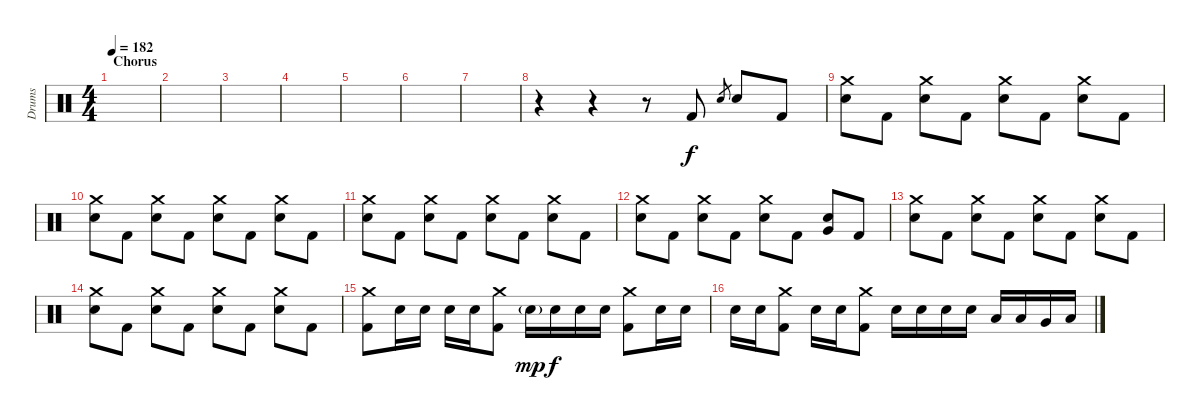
\track ("Drums" "Drums") {instrument percussion}
\staff {score}
\articulation defaults
\ts (4 4)
\section ("" "Chorus")
\tempo 182
\clef neutral
\ks c
|
|
|
|
|
|
|
r.4 r.4 r.8 "Kick (hit) 2".8 "Electric Snare (hit)".8{gr} "Electric Snare (hit)".8 "Kick (hit) 2".8 |
("Crash medium (hit)" "Electric Snare (hit)").8 "Kick (hit) 2".8 ("Crash medium (hit)" "Electric Snare (hit)").8 "Kick (hit) 2".8 ("Crash medium (hit)" "Electric Snare (hit)").8 "Kick (hit) 2".8 ("Crash medium (hit)" "Electric Snare (hit)").8 "Kick (hit) 2".8 |
("Crash medium (hit)" "Electric Snare (hit)").8 "Kick (hit) 2".8 ("Crash medium (hit)" "Electric Snare (hit)").8 "Kick (hit) 2".8 ("Crash medium (hit)" "Electric Snare (hit)").8 "Kick (hit) 2".8 ("Crash medium (hit)" "Electric Snare (hit)").8 "Kick (hit) 2".8 |
("Crash medium (hit)" "Electric Snare (hit)").8 "Kick (hit) 2".8 ("Crash medium (hit)" "Electric Snare (hit)").8 "Kick (hit) 2".8 ("Crash medium (hit)" "Electric Snare (hit)").8 "Kick (hit) 2".8 ("Crash medium (hit)" "Electric Snare (hit)").8 "Kick (hit) 2".8 |
("Crash medium (hit)" "Electric Snare (hit)").8 "Kick (hit) 2".8 ("Crash medium (hit)" "Electric Snare (hit)").8 "Kick (hit) 2".8 ("Crash medium (hit)" "Electric Snare (hit)").8 "Kick (hit) 2".8 ("Very Low Tom (hit)" "Electric Snare (hit)").8 "Kick (hit) 2".8 |
("Crash medium (hit)" "Electric Snare (hit)").8 "Kick (hit) 2".8 ("Crash medium (hit)" "Electric Snare (hit)").8 "Kick (hit) 2".8 ("Crash medium (hit)" "Electric Snare (hit)").8 "Kick (hit) 2".8 ("Crash medium (hit)" "Electric Snare (hit)").8 "Kick (hit) 2".8 |
("Crash medium (hit)" "Electric Snare (hit)").8 "Kick (hit) 2".8 ("Crash medium (hit)" "Electric Snare (hit)").8 "Kick (hit) 2".8 ("Crash medium (hit)" "Electric Snare (hit)").8 "Kick (hit) 2".8 ("Crash medium (hit)" "Electric Snare (hit)").8 "Kick (hit) 2".8 |
("Crash medium (hit)" "Kick (hit) 2").8 "Electric Snare (hit)".16 "Electric Snare (hit)".16 "Electric Snare (hit)".16 "Electric Snare (hit)".16 ("Crash medium (hit)" "Kick (hit) 2").8 "Electric Snare (hit)"{g}.16{dy mp} "Electric Snare (hit)".16{dy f} "Electric Snare (hit)".16 "Electric Snare (hit)".16 ("Crash medium (hit)" "Kick (hit) 2").8 "Electric Snare (hit)".16 "Electric Snare (hit)".16 |
"Electric Snare (hit)".16 "Electric Snare (hit)".16 ("Crash medium (hit)" "Kick (hit) 2").8 "Electric Snare (hit)".16 "Electric Snare (hit)".16 ("Crash medium (hit)" "Kick (hit) 2").8 "Electric Snare (hit)".16 "Electric Snare (hit)".16 "Electric Snare (hit)".16 "Electric Snare (hit)".16 "Low Tom (hit)".16 "Low Tom (hit)".16 "Very Low Tom (hit)".16 "Low Floor Tom (hit)".16
